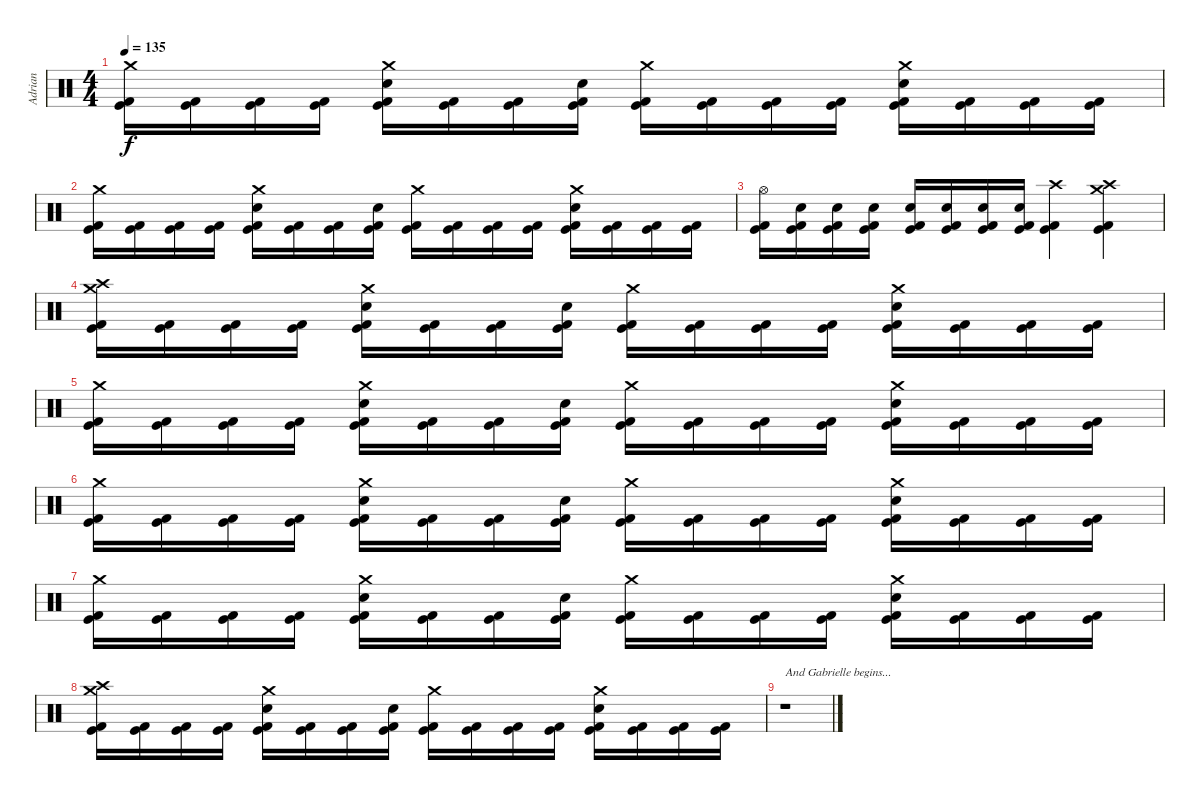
\track ("Adrian" "Adrian") {instrument percussion}
\staff {score}
\articulation defaults
\ts (4 4)
\tempo 135
\clef neutral
\ks c
("Crash medium (hit)" "Kick (hit)" "Kick (hit) 2").16{dy f} ("Kick (hit)" "Kick (hit) 2").16 ("Kick (hit)" "Kick (hit) 2").16 ("Kick (hit)" "Kick (hit) 2").16 ("Crash medium (hit)" "Electric Snare (hit)" "Kick (hit)" "Kick (hit) 2").16 ("Kick (hit)" "Kick (hit) 2").16 ("Kick (hit)" "Kick (hit) 2").16 ("Electric Snare (hit)" "Kick (hit)" "Kick (hit) 2").16 ("Crash medium (hit)" "Kick (hit)" "Kick (hit) 2").16 ("Kick (hit)" "Kick (hit) 2").16 ("Kick (hit)" "Kick (hit) 2").16 ("Kick (hit)" "Kick (hit) 2").16 ("Crash medium (hit)" "Electric Snare (hit)" "Kick (hit)" "Kick (hit) 2").16 ("Kick (hit)" "Kick (hit) 2").16 ("Kick (hit)" "Kick (hit) 2").16 ("Kick (hit)" "Kick (hit) 2").16 |
("Crash medium (hit)" "Kick (hit)" "Kick (hit) 2").16 ("Kick (hit)" "Kick (hit) 2").16 ("Kick (hit)" "Kick (hit) 2").16 ("Kick (hit)" "Kick (hit) 2").16 ("Crash medium (hit)" "Electric Snare (hit)" "Kick (hit)" "Kick (hit) 2").16 ("Kick (hit)" "Kick (hit) 2").16 ("Kick (hit)" "Kick (hit) 2").16 ("Electric Snare (hit)" "Kick (hit)" "Kick (hit) 2").16 ("Crash medium (hit)" "Kick (hit)" "Kick (hit) 2").16 ("Kick (hit)" "Kick (hit) 2").16 ("Kick (hit)" "Kick (hit) 2").16 ("Kick (hit)" "Kick (hit) 2").16 ("Crash medium (hit)" "Electric Snare (hit)" "Kick (hit)" "Kick (hit) 2").16 ("Kick (hit)" "Kick (hit) 2").16 ("Kick (hit)" "Kick (hit) 2").16 ("Kick (hit)" "Kick (hit) 2").16 |
("Hi-Hat (open)" "Kick (hit)" "Kick (hit) 2").16 ("Electric Snare (hit)" "Kick (hit)" "Kick (hit) 2").16 ("Electric Snare (hit)" "Kick (hit)" "Kick (hit) 2").16 ("Electric Snare (hit)" "Kick (hit)" "Kick (hit) 2").16 ("Electric Snare (hit)" "Kick (hit)" "Kick (hit) 2").16 ("Electric Snare (hit)" "Kick (hit)" "Kick (hit) 2").16 ("Electric Snare (hit)" "Kick (hit)" "Kick (hit) 2").16 ("Electric Snare (hit)" "Kick (hit)" "Kick (hit) 2").16 ("Crash high (hit)" "Kick (hit)" "Kick (hit) 2").4 ("Crash high (hit)" "Crash medium (hit)" "Kick (hit)" "Kick (hit) 2").4 |
("Crash medium (hit)" "Crash high (hit)" "Kick (hit)" "Kick (hit) 2").16 ("Kick (hit)" "Kick (hit) 2").16 ("Kick (hit)" "Kick (hit) 2").16 ("Kick (hit)" "Kick (hit) 2").16 ("Crash medium (hit)" "Electric Snare (hit)" "Kick (hit)" "Kick (hit) 2").16 ("Kick (hit)" "Kick (hit) 2").16 ("Kick (hit)" "Kick (hit) 2").16 ("Electric Snare (hit)" "Kick (hit)" "Kick (hit) 2").16 ("Crash medium (hit)" "Kick (hit)" "Kick (hit) 2").16 ("Kick (hit)" "Kick (hit) 2").16 ("Kick (hit)" "Kick (hit) 2").16 ("Kick (hit)" "Kick (hit) 2").16 ("Crash medium (hit)" "Electric Snare (hit)" "Kick (hit)" "Kick (hit) 2").16 ("Kick (hit)" "Kick (hit) 2").16 ("Kick (hit)" "Kick (hit) 2").16 ("Kick (hit)" "Kick (hit) 2").16 |
("Crash medium (hit)" "Kick (hit)" "Kick (hit) 2").16 ("Kick (hit)" "Kick (hit) 2").16 ("Kick (hit)" "Kick (hit) 2").16 ("Kick (hit)" "Kick (hit) 2").16 ("Crash medium (hit)" "Electric Snare (hit)" "Kick (hit)" "Kick (hit) 2").16 ("Kick (hit)" "Kick (hit) 2").16 ("Kick (hit)" "Kick (hit) 2").16 ("Electric Snare (hit)" "Kick (hit)" "Kick (hit) 2").16 ("Crash medium (hit)" "Kick (hit)" "Kick (hit) 2").16 ("Kick (hit)" "Kick (hit) 2").16 ("Kick (hit)" "Kick (hit) 2").16 ("Kick (hit)" "Kick (hit) 2").16 ("Crash medium (hit)" "Electric Snare (hit)" "Kick (hit)" "Kick (hit) 2").16 ("Kick (hit)" "Kick (hit) 2").16 ("Kick (hit)" "Kick (hit) 2").16 ("Kick (hit)" "Kick (hit) 2").16 |
("Crash medium (hit)" "Kick (hit)" "Kick (hit) 2").16 ("Kick (hit)" "Kick (hit) 2").16 ("Kick (hit)" "Kick (hit) 2").16 ("Kick (hit)" "Kick (hit) 2").16 ("Crash medium (hit)" "Electric Snare (hit)" "Kick (hit)" "Kick (hit) 2").16 ("Kick (hit)" "Kick (hit) 2").16 ("Kick (hit)" "Kick (hit) 2").16 ("Electric Snare (hit)" "Kick (hit)" "Kick (hit) 2").16 ("Crash medium (hit)" "Kick (hit)" "Kick (hit) 2").16 ("Kick (hit)" "Kick (hit) 2").16 ("Kick (hit)" "Kick (hit) 2").16 ("Kick (hit)" "Kick (hit) 2").16 ("Crash medium (hit)" "Electric Snare (hit)" "Kick (hit)" "Kick (hit) 2").16 ("Kick (hit)" "Kick (hit) 2").16 ("Kick (hit)" "Kick (hit) 2").16 ("Kick (hit)" "Kick (hit) 2").16 |
("Crash medium (hit)" "Kick (hit)" "Kick (hit) 2").16 ("Kick (hit)" "Kick (hit) 2").16 ("Kick (hit)" "Kick (hit) 2").16 ("Kick (hit)" "Kick (hit) 2").16 ("Crash medium (hit)" "Electric Snare (hit)" "Kick (hit)" "Kick (hit) 2").16 ("Kick (hit)" "Kick (hit) 2").16 ("Kick (hit)" "Kick (hit) 2").16 ("Electric Snare (hit)" "Kick (hit)" "Kick (hit) 2").16 ("Crash medium (hit)" "Kick (hit)" "Kick (hit) 2").16 ("Kick (hit)" "Kick (hit) 2").16 ("Kick (hit)" "Kick (hit) 2").16 ("Kick (hit)" "Kick (hit) 2").16 ("Crash medium (hit)" "Electric Snare (hit)" "Kick (hit)" "Kick (hit) 2").16 ("Kick (hit)" "Kick (hit) 2").16 ("Kick (hit)" "Kick (hit) 2").16 ("Kick (hit)" "Kick (hit) 2").16 |
("Crash medium (hit)" "Crash high (hit)" "Kick (hit)" "Kick (hit) 2").16 ("Kick (hit)" "Kick (hit) 2").16 ("Kick (hit)" "Kick (hit) 2").16 ("Kick (hit)" "Kick (hit) 2").16 ("Crash medium (hit)" "Electric Snare (hit)" "Kick (hit)" "Kick (hit) 2").16 ("Kick (hit)" "Kick (hit) 2").16 ("Kick (hit)" "Kick (hit) 2").16 ("Electric Snare (hit)" "Kick (hit)" "Kick (hit) 2").16 ("Crash medium (hit)" "Kick (hit)" "Kick (hit) 2").16 ("Kick (hit)" "Kick (hit) 2").16 ("Kick (hit)" "Kick (hit) 2").16 ("Kick (hit)" "Kick (hit) 2").16 ("Crash medium (hit)" "Electric Snare (hit)" "Kick (hit)" "Kick (hit) 2").16 ("Kick (hit)" "Kick (hit) 2").16 ("Kick (hit)" "Kick (hit) 2").16 ("Kick (hit)" "Kick (hit) 2").16 |
r.1{txt "And Gabrielle begins..."}
